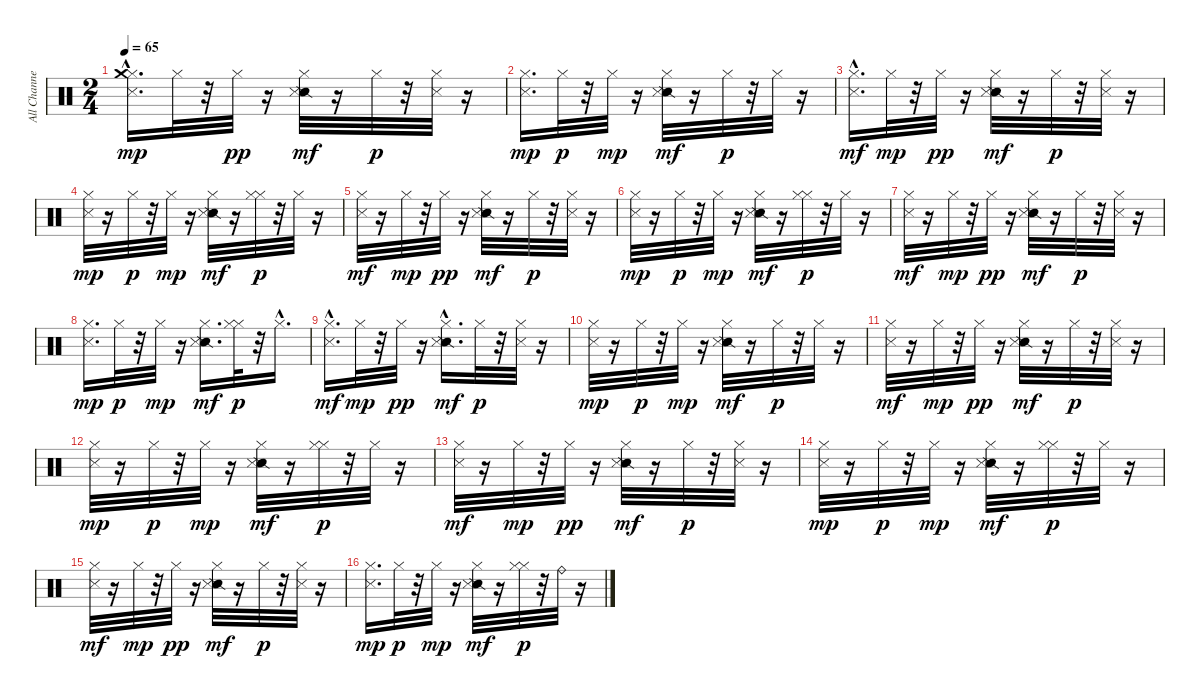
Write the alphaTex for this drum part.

\track ("All Channels*merged" "All Channe") {instrument percussion}
\staff {score}
\articulation defaults
\ts (2 4)
\tempo 65
\clef neutral
\ks c
("Metronome (hit)"{hac} "Hi-Hat (closed)"{hac} "Crash medium (hit)").16{d dy mp} "Hi-Hat (closed)".32 r.32 "Hi-Hat (closed)".32{dy pp} r.16 ("Snare (side stick) 2" "Snare (side stick) 3" "Hi-Hat (closed)").32{dy mf} r.16 "Hi-Hat (closed)".32{dy p} r.32 ("Metronome (hit)" "Hi-Hat (closed)").32 r.16 |
("Metronome (hit)" "Hi-Hat (closed)").16{d dy mp} "Hi-Hat (closed)".32{dy p} r.32 "Hi-Hat (closed)".32{dy mp} r.16 ("Snare (side stick) 2" "Snare (side stick) 3" "Hi-Hat (closed)").32{dy mf} r.16 "Hi-Hat (closed)".32{dy p} r.32 "Hi-Hat (closed)".32 r.16 |
("Metronome (hit)"{hac} "Hi-Hat (closed)").16{d dy mf} "Hi-Hat (closed)".32{dy mp} r.32 "Hi-Hat (closed)".32{dy pp} r.16 ("Snare (side stick) 2" "Snare (side stick) 3" "Hi-Hat (closed)").32{dy mf} r.16 "Hi-Hat (closed)".32{dy p} r.32 ("Metronome (hit)" "Hi-Hat (closed)").32 r.16 |
("Metronome (hit)" "Hi-Hat (closed)").32{dy mp} r.16 "Hi-Hat (closed)".32{dy p} r.32 "Hi-Hat (closed)".32{dy mp} r.16 ("Snare (side stick) 2" "Snare (side stick) 3" "Hi-Hat (closed)").32{dy mf} r.16 ("Hi-Hat (closed)" "Hi-Hat (closed)").32{dy p} r.32 "Hi-Hat (closed)".32 r.16 |
("Metronome (hit)" "Hi-Hat (closed)").32{dy mf} r.16 "Hi-Hat (closed)".32{dy mp} r.32 "Hi-Hat (closed)".32{dy pp} r.16 ("Snare (side stick) 2" "Snare (side stick) 3" "Hi-Hat (closed)").32{dy mf} r.16 "Hi-Hat (closed)".32{dy p} r.32 ("Metronome (hit)" "Hi-Hat (closed)").32 r.16 |
("Metronome (hit)" "Hi-Hat (closed)").32{dy mp} r.16 "Hi-Hat (closed)".32{dy p} r.32 "Hi-Hat (closed)".32{dy mp} r.16 ("Snare (side stick) 2" "Snare (side stick) 3" "Hi-Hat (closed)").32{dy mf} r.16 ("Hi-Hat (closed)" "Hi-Hat (closed)").32{dy p} r.32 "Hi-Hat (closed)".32 r.16 |
("Metronome (hit)" "Hi-Hat (closed)").32{dy mf} r.16 "Hi-Hat (closed)".32{dy mp} r.32 "Hi-Hat (closed)".32{dy pp} r.16 ("Snare (side stick) 2" "Snare (side stick) 3" "Hi-Hat (closed)").32{dy mf} r.16 "Hi-Hat (closed)".32{dy p} r.32 ("Metronome (hit)" "Hi-Hat (closed)").32 r.16 |
("Metronome (hit)" "Hi-Hat (closed)").16{d dy mp} "Hi-Hat (closed)".32{dy p} r.32 "Hi-Hat (closed)".32{dy mp} r.16 ("Snare (side stick) 2" "Snare (side stick) 3" "Hi-Hat (closed)").16{d dy mf} ("Hi-Hat (closed)" "Hi-Hat (closed)").32{dy p} r.32 "Hi-Hat (closed)"{hac}.16{d} |
("Metronome (hit)"{hac} "Hi-Hat (closed)"{hac}).16{d dy mf} "Hi-Hat (closed)".32{dy mp} r.32 "Hi-Hat (closed)".32{dy pp} r.16 ("Snare (side stick) 2"{hac} "Snare (side stick) 3"{hac} "Hi-Hat (closed)").16{d dy mf} "Hi-Hat (closed)".32{dy p} r.32 ("Metronome (hit)" "Hi-Hat (closed)").32 r.16 |
("Metronome (hit)" "Hi-Hat (closed)").32{dy mp} r.16 "Hi-Hat (closed)".32{dy p} r.32 "Hi-Hat (closed)".32{dy mp} r.16 ("Snare (side stick) 2" "Snare (side stick) 3" "Hi-Hat (closed)").32{dy mf} r.16 "Hi-Hat (closed)".32{dy p} r.32 "Hi-Hat (closed)".32 r.16 |
("Metronome (hit)" "Hi-Hat (closed)").32{dy mf} r.16 "Hi-Hat (closed)".32{dy mp} r.32 "Hi-Hat (closed)".32{dy pp} r.16 ("Snare (side stick) 2" "Snare (side stick) 3" "Hi-Hat (closed)").32{dy mf} r.16 "Hi-Hat (closed)".32{dy p} r.32 ("Metronome (hit)" "Hi-Hat (closed)").32 r.16 |
("Metronome (hit)" "Hi-Hat (closed)").32{dy mp} r.16 "Hi-Hat (closed)".32{dy p} r.32 "Hi-Hat (closed)".32{dy mp} r.16 ("Snare (side stick) 2" "Snare (side stick) 3" "Hi-Hat (closed)").32{dy mf} r.16 ("Hi-Hat (closed)" "Hi-Hat (closed)").32{dy p} r.32 "Hi-Hat (closed)".32 r.16 |
("Metronome (hit)" "Hi-Hat (closed)").32{dy mf} r.16 "Hi-Hat (closed)".32{dy mp} r.32 "Hi-Hat (closed)".32{dy pp} r.16 ("Snare (side stick) 2" "Snare (side stick) 3" "Hi-Hat (closed)").32{dy mf} r.16 "Hi-Hat (closed)".32{dy p} r.32 ("Metronome (hit)" "Hi-Hat (closed)").32 r.16 |
("Metronome (hit)" "Hi-Hat (closed)").32{dy mp} r.16 "Hi-Hat (closed)".32{dy p} r.32 "Hi-Hat (closed)".32{dy mp} r.16 ("Snare (side stick) 2" "Snare (side stick) 3" "Hi-Hat (closed)").32{dy mf} r.16 ("Hi-Hat (closed)" "Hi-Hat (closed)").32{dy p} r.32 "Hi-Hat (closed)".32 r.16 |
("Metronome (hit)" "Hi-Hat (closed)").32{dy mf} r.16 "Hi-Hat (closed)".32{dy mp} r.32 "Hi-Hat (closed)".32{dy pp} r.16 ("Snare (side stick) 2" "Snare (side stick) 3" "Hi-Hat (closed)").32{dy mf} r.16 "Hi-Hat (closed)".32{dy p} r.32 ("Metronome (hit)" "Hi-Hat (closed)").32 r.16 |
("Metronome (hit)" "Hi-Hat (closed)").16{d dy mp} "Hi-Hat (closed)".32{dy p} r.32 "Hi-Hat (closed)".32{dy mp} r.16 ("Snare (side stick) 2" "Snare (side stick) 3" "Hi-Hat (closed)").32{dy mf} r.16 ("Hi-Hat (closed)" "Hi-Hat (closed)").32{dy p} r.32 "Ride (bell)".32 r.16
